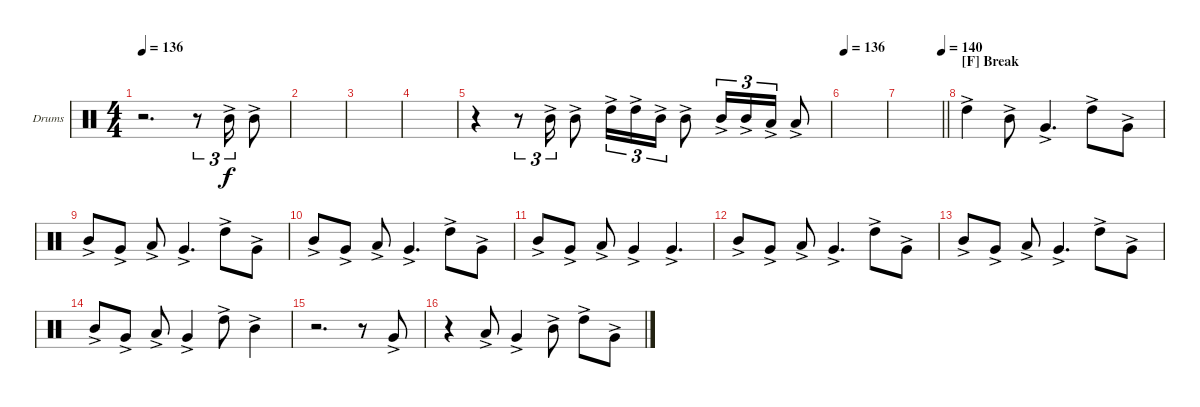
\bracketExtendMode groupsimilarinstruments
\firstSystemTrackNameOrientation horizontal
\otherSystemsTrackNameOrientation horizontal
\track ("Drumkit" "Drums") {instrument percussion}
\staff {score}
\articulation defaults
\ts (4 4)
\tempo 136
\clef neutral
\scale
0.333333
\ks c
r.2{d dy f} r.8{tu (3 2)} "Mid Tom (hit)"{ac}.16{tu (3 2)} "Mid Tom (hit)"{ac}.8 |
\scale
0.333333 |
\scale
0.333333 |
\scale
0.333333 |
r.4 r.8{tu (3 2)} "Mid Tom (hit)"{ac}.16{tu (3 2)} "Mid Tom (hit)"{ac}.8 "High Tom (hit)"{ac}.16{tu (3 2)} "High Tom (hit)"{ac}.16{tu (3 2)} "Mid Tom (hit)"{ac}.16{tu (3 2)} "Mid Tom (hit)"{ac}.8 "Mid Tom (hit)"{ac}.16{tu (3 2)} "Mid Tom (hit)"{ac}.16{tu (3 2)} "Low Tom (hit)"{ac}.16{tu (3 2)} "Low Tom (hit)"{ac}.8 |
\tempo 136
|
\tempo (140 1)
\barLineRight lightlight
|
\section ("F" "Break")
"High Tom (hit)"{ac}.4 "Mid Tom (hit)"{ac}.8 "Very Low Tom (hit)"{ac}.4{d} "High Tom (hit)"{ac}.8 "Very Low Tom (hit)"{ac}.8 |
"Mid Tom (hit)"{ac}.8 "Very Low Tom (hit)"{ac}.8 "Low Tom (hit)"{ac}.8 "Very Low Tom (hit)"{ac}.4{d} "High Tom (hit)"{ac}.8 "Very Low Tom (hit)"{ac}.8 |
"Mid Tom (hit)"{ac}.8 "Very Low Tom (hit)"{ac}.8 "Low Tom (hit)"{ac}.8 "Very Low Tom (hit)"{ac}.4{d} "High Tom (hit)"{ac}.8 "Very Low Tom (hit)"{ac}.8 |
"Mid Tom (hit)"{ac}.8 "Very Low Tom (hit)"{ac}.8 "Low Tom (hit)"{ac}.8 "Very Low Tom (hit)"{ac}.4 "Very Low Tom (hit)"{ac}.4{d} |
"Mid Tom (hit)"{ac}.8 "Very Low Tom (hit)"{ac}.8 "Low Tom (hit)"{ac}.8 "Very Low Tom (hit)"{ac}.4{d} "High Tom (hit)"{ac}.8 "Very Low Tom (hit)"{ac}.8 |
"Mid Tom (hit)"{ac}.8 "Very Low Tom (hit)"{ac}.8 "Low Tom (hit)"{ac}.8 "Very Low Tom (hit)"{ac}.4{d} "High Tom (hit)"{ac}.8 "Very Low Tom (hit)"{ac}.8 |
"Mid Tom (hit)"{ac}.8 "Very Low Tom (hit)"{ac}.8 "Low Tom (hit)"{ac}.8 "Very Low Tom (hit)"{ac}.4 "High Tom (hit)"{ac}.8 "Mid Tom (hit)"{ac}.4 |
r.2{d} r.8 "Very Low Tom (hit)"{ac}.8 |
r.4 "Low Tom (hit)"{ac}.8 "Very Low Tom (hit)"{ac}.4 "Mid Tom (hit)"{ac}.8 "High Tom (hit)"{ac}.8 "Very Low Tom (hit)"{ac}.8
